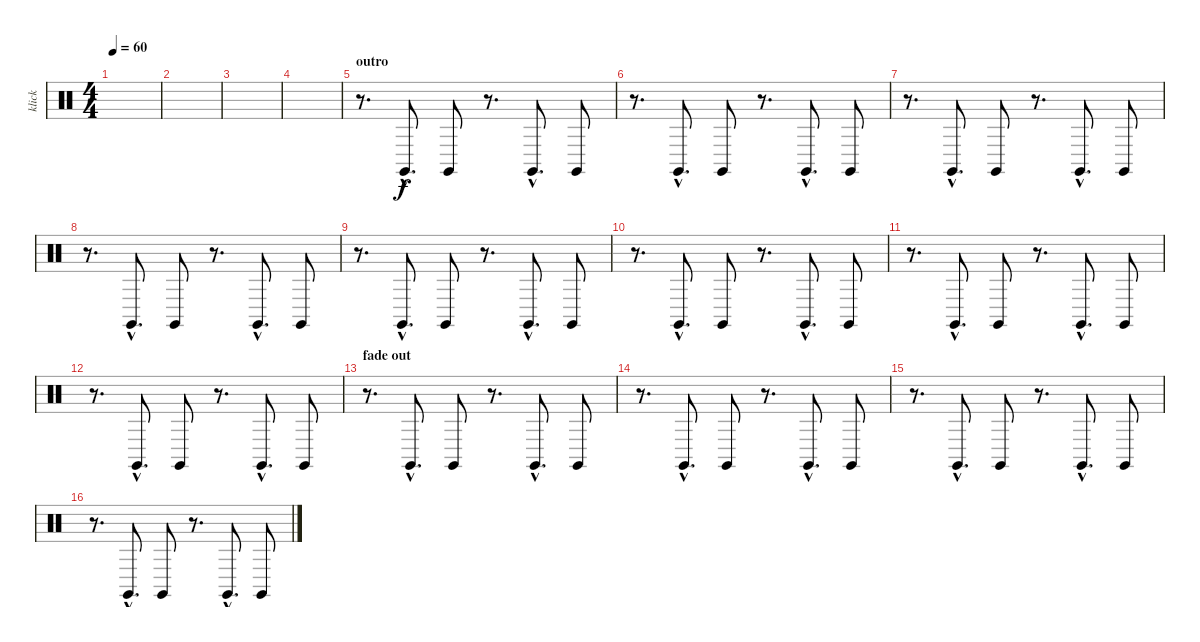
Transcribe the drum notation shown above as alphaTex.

\track ("klick" "klick") {instrument percussion}
\staff {score}
\articulation defaults
\ts (4 4)
\tempo 60
\clef neutral
\ks c
|
|
|
|
\section ("" "outro")
r.8{d} "Claves (hit)"{hac}.8{d} "Claves (hit)".8 r.8{d} "Claves (hit)"{hac}.8{d} "Claves (hit)".8 |
r.8{d} "Claves (hit)"{hac}.8{d} "Claves (hit)".8 r.8{d} "Claves (hit)"{hac}.8{d} "Claves (hit)".8 |
r.8{d} "Claves (hit)"{hac}.8{d} "Claves (hit)".8 r.8{d} "Claves (hit)"{hac}.8{d} "Claves (hit)".8 |
r.8{d} "Claves (hit)"{hac}.8{d} "Claves (hit)".8 r.8{d} "Claves (hit)"{hac}.8{d} "Claves (hit)".8 |
r.8{d} "Claves (hit)"{hac}.8{d} "Claves (hit)".8 r.8{d} "Claves (hit)"{hac}.8{d} "Claves (hit)".8 |
r.8{d} "Claves (hit)"{hac}.8{d} "Claves (hit)".8 r.8{d} "Claves (hit)"{hac}.8{d} "Claves (hit)".8 |
r.8{d} "Claves (hit)"{hac}.8{d} "Claves (hit)".8 r.8{d} "Claves (hit)"{hac}.8{d} "Claves (hit)".8 |
r.8{d} "Claves (hit)"{hac}.8{d} "Claves (hit)".8 r.8{d} "Claves (hit)"{hac}.8{d} "Claves (hit)".8 |
\section ("" "fade out")
r.8{d} "Claves (hit)"{hac}.8{d} "Claves (hit)".8 r.8{d} "Claves (hit)"{hac}.8{d} "Claves (hit)".8 |
r.8{d} "Claves (hit)"{hac}.8{d} "Claves (hit)".8 r.8{d} "Claves (hit)"{hac}.8{d} "Claves (hit)".8 |
r.8{d} "Claves (hit)"{hac}.8{d} "Claves (hit)".8 r.8{d} "Claves (hit)"{hac}.8{d} "Claves (hit)".8 |
r.8{d} "Claves (hit)"{hac}.8{d} "Claves (hit)".8 r.8{d} "Claves (hit)"{hac}.8{d} "Claves (hit)".8
